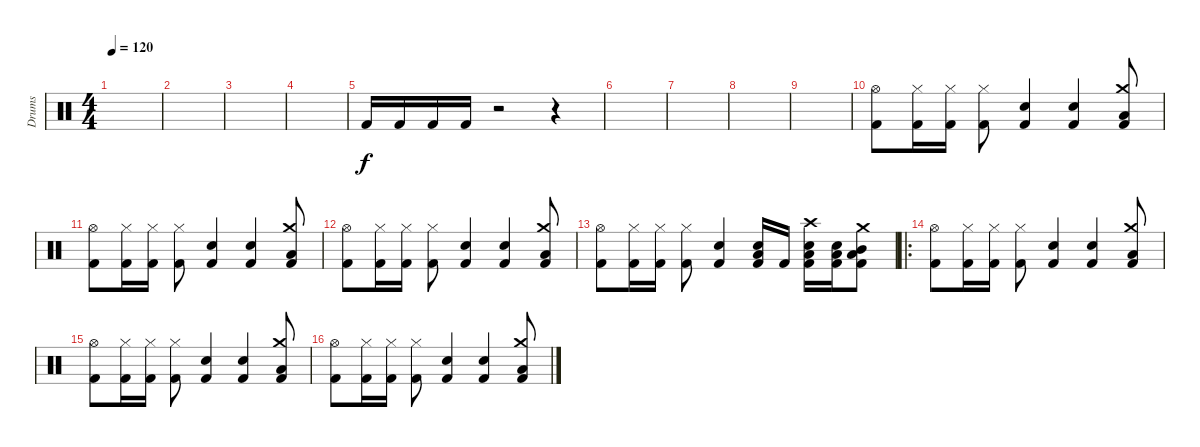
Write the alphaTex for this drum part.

\track ("Drums" "Drums") {instrument percussion}
\staff {score}
\articulation defaults
\ts (4 4)
\tempo 120
\clef neutral
\ks c
|
|
|
|
"Kick (hit) 2".16 "Kick (hit) 2".16 "Kick (hit) 2".16 "Kick (hit) 2".16 r.2 r.4 |
|
|
|
|
("Hi-Hat (open)" "Kick (hit) 2").8 ("Hi-Hat (closed)" "Kick (hit) 2").16 ("Hi-Hat (closed)" "Kick (hit) 2").16 ("Hi-Hat (closed)" "Kick (hit) 2").8 ("Electric Snare (hit)" "Kick (hit) 2").4 ("Electric Snare (hit)" "Kick (hit) 2").4 ("Crash medium (hit)" "Low Floor Tom (hit)" "Kick (hit) 2").8 |
("Hi-Hat (open)" "Kick (hit) 2").8 ("Hi-Hat (closed)" "Kick (hit) 2").16 ("Hi-Hat (closed)" "Kick (hit) 2").16 ("Hi-Hat (closed)" "Kick (hit) 2").8 ("Electric Snare (hit)" "Kick (hit) 2").4 ("Electric Snare (hit)" "Kick (hit) 2").4 ("Crash medium (hit)" "Low Floor Tom (hit)" "Kick (hit) 2").8 |
("Hi-Hat (open)" "Kick (hit) 2").8 ("Hi-Hat (closed)" "Kick (hit) 2").16 ("Hi-Hat (closed)" "Kick (hit) 2").16 ("Hi-Hat (closed)" "Kick (hit) 2").8 ("Electric Snare (hit)" "Kick (hit) 2").4 ("Electric Snare (hit)" "Kick (hit) 2").4 ("Crash medium (hit)" "Low Floor Tom (hit)" "Kick (hit) 2").8 |
("Hi-Hat (open)" "Kick (hit) 2").8 ("Hi-Hat (closed)" "Kick (hit) 2").16 ("Hi-Hat (closed)" "Kick (hit) 2").16 ("Hi-Hat (closed)" "Kick (hit) 2").8 ("Electric Snare (hit)" "Kick (hit) 2").4 ("Electric Snare (hit)" "Low Tom (hit)" "Kick (hit) 2").16 "Kick (hit) 2".16 ("Crash high (hit)" "Electric Snare (hit)" "Low Tom (hit)" "Kick (hit) 2").16 ("Electric Snare (hit)" "Low Tom (hit)" "Kick (hit) 2").16 ("Crash medium (hit)" "Low Floor Tom (hit)" "Mid Tom (hit)" "Kick (hit) 2").8 |
\ro
("Hi-Hat (open)" "Kick (hit) 2").8 ("Hi-Hat (closed)" "Kick (hit) 2").16 ("Hi-Hat (closed)" "Kick (hit) 2").16 ("Hi-Hat (closed)" "Kick (hit) 2").8 ("Electric Snare (hit)" "Kick (hit) 2").4 ("Electric Snare (hit)" "Kick (hit) 2").4 ("Crash medium (hit)" "Low Floor Tom (hit)" "Kick (hit) 2").8 |
("Hi-Hat (open)" "Kick (hit) 2").8 ("Hi-Hat (closed)" "Kick (hit) 2").16 ("Hi-Hat (closed)" "Kick (hit) 2").16 ("Hi-Hat (closed)" "Kick (hit) 2").8 ("Electric Snare (hit)" "Kick (hit) 2").4 ("Electric Snare (hit)" "Kick (hit) 2").4 ("Crash medium (hit)" "Low Floor Tom (hit)" "Kick (hit) 2").8 |
("Hi-Hat (open)" "Kick (hit) 2").8 ("Hi-Hat (closed)" "Kick (hit) 2").16 ("Hi-Hat (closed)" "Kick (hit) 2").16 ("Hi-Hat (closed)" "Kick (hit) 2").8 ("Electric Snare (hit)" "Kick (hit) 2").4 ("Electric Snare (hit)" "Kick (hit) 2").4 ("Crash medium (hit)" "Low Floor Tom (hit)" "Kick (hit) 2").8
